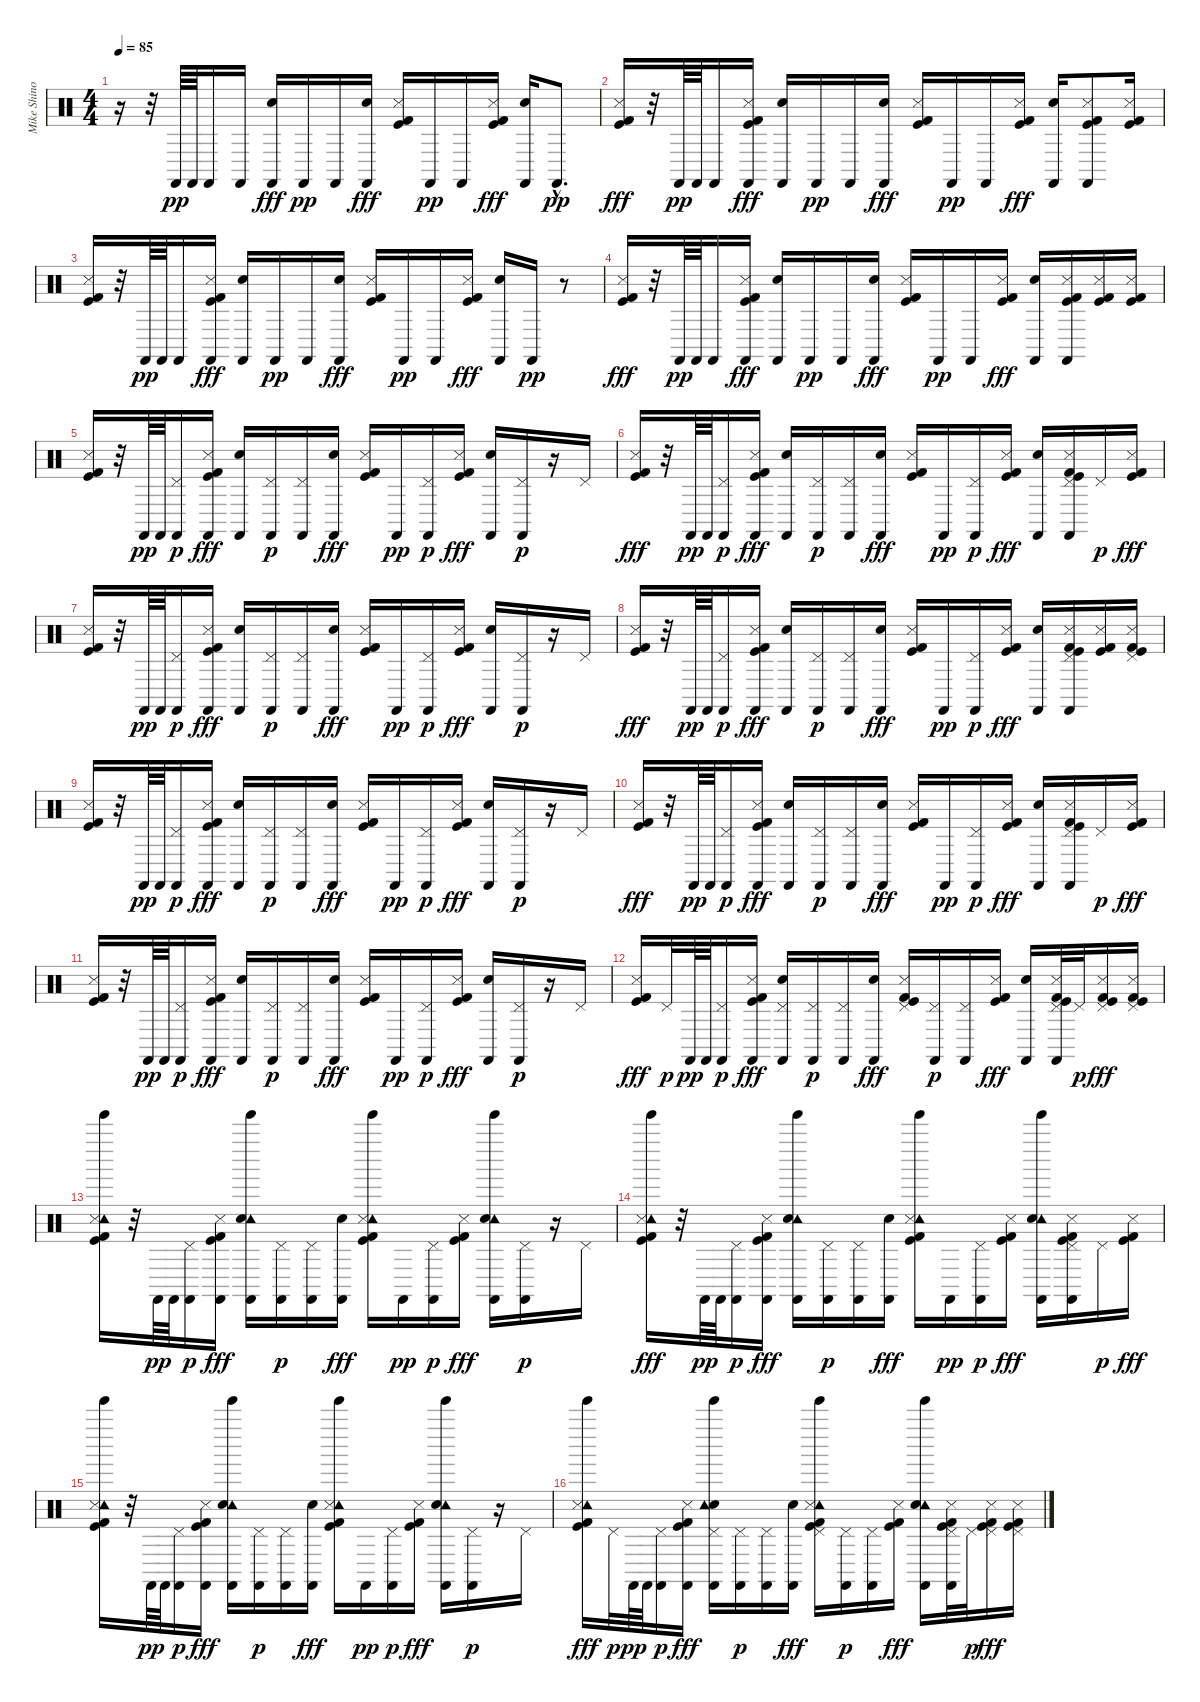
\track ("Mike Shinoda - Percussion" "Mike Shino") {instrument percussion}
\staff {score}
\articulation defaults
\ts (4 4)
\tempo 85
\clef neutral
\ks c
r.16{dy fff} r.32 "Castanets (hit)".64{dy pp} "Castanets (hit)".64 "Castanets (hit)".16 "Castanets (hit)".16 ("Castanets (hit)" "Hand Clap (hit)").16{dy fff} "Castanets (hit)".16{dy pp} "Castanets (hit)".16 ("Castanets (hit)" "Hand Clap (hit)").16{dy fff} ("Snare (side stick) 3" "Kick (hit)" "Kick (hit) 2").16 "Castanets (hit)".16{dy pp} "Castanets (hit)".16 ("Snare (side stick) 3" "Kick (hit)" "Kick (hit) 2").16{dy fff} ("Castanets (hit)" "Hand Clap (hit)").16 "Castanets (hit)"{hac}.8{d dy pp} |
("Snare (side stick) 3" "Kick (hit)" "Kick (hit) 2").16{dy fff} r.32 "Castanets (hit)".64{dy pp} "Castanets (hit)".64 "Castanets (hit)".16 ("Castanets (hit)" "Snare (side stick) 3" "Kick (hit)" "Kick (hit) 2").16{dy fff} ("Castanets (hit)" "Hand Clap (hit)").16 "Castanets (hit)".16{dy pp} "Castanets (hit)".16 ("Castanets (hit)" "Hand Clap (hit)").16{dy fff} ("Snare (side stick) 3" "Kick (hit)" "Kick (hit) 2").16 "Castanets (hit)".16{dy pp} "Castanets (hit)".16 ("Snare (side stick) 3" "Kick (hit)" "Kick (hit) 2").16{dy fff} ("Castanets (hit)" "Hand Clap (hit)").16 ("Castanets (hit)" "Snare (side stick) 3" "Kick (hit)" "Kick (hit) 2").8 ("Snare (side stick) 3" "Kick (hit)" "Kick (hit) 2").16 |
("Snare (side stick) 3" "Kick (hit)" "Kick (hit) 2").16 r.32 "Castanets (hit)".64{dy pp} "Castanets (hit)".64 "Castanets (hit)".16 ("Castanets (hit)" "Snare (side stick) 3" "Kick (hit)" "Kick (hit) 2").16{dy fff} ("Castanets (hit)" "Hand Clap (hit)").16 "Castanets (hit)".16{dy pp} "Castanets (hit)".16 ("Castanets (hit)" "Hand Clap (hit)").16{dy fff} ("Snare (side stick) 3" "Kick (hit)" "Kick (hit) 2").16 "Castanets (hit)".16{dy pp} "Castanets (hit)".16 ("Snare (side stick) 3" "Kick (hit)" "Kick (hit) 2").16{dy fff} ("Castanets (hit)" "Hand Clap (hit)").16 "Castanets (hit)".16{dy pp} r.8 |
("Snare (side stick) 3" "Kick (hit)" "Kick (hit) 2").16{dy fff} r.32 "Castanets (hit)".64{dy pp} "Castanets (hit)".64 "Castanets (hit)".16 ("Castanets (hit)" "Snare (side stick) 3" "Kick (hit)" "Kick (hit) 2").16{dy fff} ("Castanets (hit)" "Hand Clap (hit)").16 "Castanets (hit)".16{dy pp} "Castanets (hit)".16 ("Castanets (hit)" "Hand Clap (hit)").16{dy fff} ("Snare (side stick) 3" "Kick (hit)" "Kick (hit) 2").16 "Castanets (hit)".16{dy pp} "Castanets (hit)".16 ("Snare (side stick) 3" "Kick (hit)" "Kick (hit) 2").16{dy fff} ("Castanets (hit)" "Hand Clap (hit)").16 ("Castanets (hit)" "Snare (side stick) 3" "Kick (hit)" "Kick (hit) 2").16 ("Snare (side stick) 3" "Kick (hit)" "Kick (hit) 2").16 ("Snare (side stick) 3" "Kick (hit)" "Kick (hit) 2").16 |
("Snare (side stick) 3" "Kick (hit)" "Kick (hit) 2").16 r.32 "Castanets (hit)".64{dy pp} "Castanets (hit)".64 ("Castanets (hit)" "Pedal Hi-Hat (hit)").16{dy p} ("Castanets (hit)" "Snare (side stick) 3" "Kick (hit)" "Kick (hit) 2").16{dy fff} ("Castanets (hit)" "Hand Clap (hit)").16 ("Castanets (hit)" "Pedal Hi-Hat (hit)").16{dy p} ("Castanets (hit)" "Pedal Hi-Hat (hit)").16 ("Castanets (hit)" "Hand Clap (hit)").16{dy fff} ("Snare (side stick) 3" "Kick (hit)" "Kick (hit) 2").16 "Castanets (hit)".16{dy pp} ("Castanets (hit)" "Pedal Hi-Hat (hit)").16{dy p} ("Snare (side stick) 3" "Kick (hit)" "Kick (hit) 2").16{dy fff} ("Castanets (hit)" "Hand Clap (hit)").16 ("Castanets (hit)" "Pedal Hi-Hat (hit)").16{dy p} r.16 "Pedal Hi-Hat (hit)".16 |
("Snare (side stick) 3" "Kick (hit)" "Kick (hit) 2").16{dy fff} r.32 "Castanets (hit)".64{dy pp} "Castanets (hit)".64 ("Castanets (hit)" "Pedal Hi-Hat (hit)").16{dy p} ("Castanets (hit)" "Snare (side stick) 3" "Kick (hit)" "Kick (hit) 2").16{dy fff} ("Castanets (hit)" "Hand Clap (hit)").16 ("Castanets (hit)" "Pedal Hi-Hat (hit)").16{dy p} ("Castanets (hit)" "Pedal Hi-Hat (hit)").16 ("Castanets (hit)" "Hand Clap (hit)").16{dy fff} ("Snare (side stick) 3" "Kick (hit)" "Kick (hit) 2").16 "Castanets (hit)".16{dy pp} ("Castanets (hit)" "Pedal Hi-Hat (hit)").16{dy p} ("Snare (side stick) 3" "Kick (hit)" "Kick (hit) 2").16{dy fff} ("Castanets (hit)" "Hand Clap (hit)").16 ("Castanets (hit)" "Pedal Hi-Hat (hit)" "Snare (side stick) 3" "Kick (hit)" "Kick (hit) 2").16 "Pedal Hi-Hat (hit)".16{dy p} ("Snare (side stick) 3" "Kick (hit)" "Kick (hit) 2").16{dy fff} |
("Snare (side stick) 3" "Kick (hit)" "Kick (hit) 2").16 r.32 "Castanets (hit)".64{dy pp} "Castanets (hit)".64 ("Castanets (hit)" "Pedal Hi-Hat (hit)").16{dy p} ("Castanets (hit)" "Snare (side stick) 3" "Kick (hit)" "Kick (hit) 2").16{dy fff} ("Castanets (hit)" "Hand Clap (hit)").16 ("Castanets (hit)" "Pedal Hi-Hat (hit)").16{dy p} ("Castanets (hit)" "Pedal Hi-Hat (hit)").16 ("Castanets (hit)" "Hand Clap (hit)").16{dy fff} ("Snare (side stick) 3" "Kick (hit)" "Kick (hit) 2").16 "Castanets (hit)".16{dy pp} ("Castanets (hit)" "Pedal Hi-Hat (hit)").16{dy p} ("Snare (side stick) 3" "Kick (hit)" "Kick (hit) 2").16{dy fff} ("Castanets (hit)" "Hand Clap (hit)").16 ("Castanets (hit)" "Pedal Hi-Hat (hit)").16{dy p} r.16 "Pedal Hi-Hat (hit)".16 |
("Snare (side stick) 3" "Kick (hit)" "Kick (hit) 2").16{dy fff} r.32 "Castanets (hit)".64{dy pp} "Castanets (hit)".64 ("Castanets (hit)" "Pedal Hi-Hat (hit)").16{dy p} ("Castanets (hit)" "Snare (side stick) 3" "Kick (hit)" "Kick (hit) 2").16{dy fff} ("Castanets (hit)" "Hand Clap (hit)").16 ("Castanets (hit)" "Pedal Hi-Hat (hit)").16{dy p} ("Castanets (hit)" "Pedal Hi-Hat (hit)").16 ("Castanets (hit)" "Hand Clap (hit)").16{dy fff} ("Snare (side stick) 3" "Kick (hit)" "Kick (hit) 2").16 "Castanets (hit)".16{dy pp} ("Castanets (hit)" "Pedal Hi-Hat (hit)").16{dy p} ("Snare (side stick) 3" "Kick (hit)" "Kick (hit) 2").16{dy fff} ("Castanets (hit)" "Hand Clap (hit)").16 ("Castanets (hit)" "Pedal Hi-Hat (hit)" "Snare (side stick) 3" "Kick (hit)" "Kick (hit) 2").16 ("Snare (side stick) 3" "Kick (hit)" "Kick (hit) 2").16 ("Pedal Hi-Hat (hit)" "Snare (side stick) 3" "Kick (hit)" "Kick (hit) 2").16 |
("Snare (side stick) 3" "Kick (hit)" "Kick (hit) 2").16 r.32 "Castanets (hit)".64{dy pp} "Castanets (hit)".64 ("Castanets (hit)" "Pedal Hi-Hat (hit)").16{dy p} ("Castanets (hit)" "Snare (side stick) 3" "Kick (hit)" "Kick (hit) 2").16{dy fff} ("Castanets (hit)" "Hand Clap (hit)").16 ("Castanets (hit)" "Pedal Hi-Hat (hit)").16{dy p} ("Castanets (hit)" "Pedal Hi-Hat (hit)").16 ("Castanets (hit)" "Hand Clap (hit)").16{dy fff} ("Snare (side stick) 3" "Kick (hit)" "Kick (hit) 2").16 "Castanets (hit)".16{dy pp} ("Castanets (hit)" "Pedal Hi-Hat (hit)").16{dy p} ("Snare (side stick) 3" "Kick (hit)" "Kick (hit) 2").16{dy fff} ("Castanets (hit)" "Hand Clap (hit)").16 ("Castanets (hit)" "Pedal Hi-Hat (hit)").16{dy p} r.16 "Pedal Hi-Hat (hit)".16 |
("Snare (side stick) 3" "Kick (hit)" "Kick (hit) 2").16{dy fff} r.32 "Castanets (hit)".64{dy pp} "Castanets (hit)".64 ("Castanets (hit)" "Pedal Hi-Hat (hit)").16{dy p} ("Castanets (hit)" "Snare (side stick) 3" "Kick (hit)" "Kick (hit) 2").16{dy fff} ("Castanets (hit)" "Hand Clap (hit)").16 ("Castanets (hit)" "Pedal Hi-Hat (hit)").16{dy p} ("Castanets (hit)" "Pedal Hi-Hat (hit)").16 ("Castanets (hit)" "Hand Clap (hit)").16{dy fff} ("Snare (side stick) 3" "Kick (hit)" "Kick (hit) 2").16 "Castanets (hit)".16{dy pp} ("Castanets (hit)" "Pedal Hi-Hat (hit)").16{dy p} ("Snare (side stick) 3" "Kick (hit)" "Kick (hit) 2").16{dy fff} ("Castanets (hit)" "Hand Clap (hit)").16 ("Castanets (hit)" "Pedal Hi-Hat (hit)" "Snare (side stick) 3" "Kick (hit)" "Kick (hit) 2").16 "Pedal Hi-Hat (hit)".16{dy p} ("Snare (side stick) 3" "Kick (hit)" "Kick (hit) 2").16{dy fff} |
("Snare (side stick) 3" "Kick (hit)" "Kick (hit) 2").16 r.32 "Castanets (hit)".64{dy pp} "Castanets (hit)".64 ("Castanets (hit)" "Pedal Hi-Hat (hit)").16{dy p} ("Castanets (hit)" "Snare (side stick) 3" "Kick (hit)" "Kick (hit) 2").16{dy fff} ("Castanets (hit)" "Hand Clap (hit)").16 ("Castanets (hit)" "Pedal Hi-Hat (hit)").16{dy p} ("Castanets (hit)" "Pedal Hi-Hat (hit)").16 ("Castanets (hit)" "Hand Clap (hit)").16{dy fff} ("Snare (side stick) 3" "Kick (hit)" "Kick (hit) 2").16 "Castanets (hit)".16{dy pp} ("Castanets (hit)" "Pedal Hi-Hat (hit)").16{dy p} ("Snare (side stick) 3" "Kick (hit)" "Kick (hit) 2").16{dy fff} ("Castanets (hit)" "Hand Clap (hit)").16 ("Castanets (hit)" "Pedal Hi-Hat (hit)").16{dy p} r.16 "Pedal Hi-Hat (hit)".16 |
("Snare (side stick) 3" "Kick (hit)" "Kick (hit) 2").16{dy fff} "Pedal Hi-Hat (hit)".32{dy p} "Castanets (hit)".64{dy pp} "Castanets (hit)".64 ("Castanets (hit)" "Pedal Hi-Hat (hit)").16{dy p} ("Castanets (hit)" "Snare (side stick) 3" "Kick (hit)" "Kick (hit) 2").16{dy fff} ("Castanets (hit)" "Pedal Hi-Hat (hit)" "Hand Clap (hit)").16 ("Castanets (hit)" "Pedal Hi-Hat (hit)").16{dy p} ("Castanets (hit)" "Pedal Hi-Hat (hit)").16 ("Castanets (hit)" "Hand Clap (hit)").16{dy fff} ("Pedal Hi-Hat (hit)" "Snare (side stick) 3" "Kick (hit)" "Kick (hit) 2").16 ("Castanets (hit)" "Pedal Hi-Hat (hit)").16{dy p} ("Castanets (hit)" "Pedal Hi-Hat (hit)").16 ("Snare (side stick) 3" "Kick (hit)" "Kick (hit) 2").16{dy fff} ("Castanets (hit)" "Hand Clap (hit)").16 ("Castanets (hit)" "Pedal Hi-Hat (hit)" "Snare (side stick) 3" "Kick (hit)" "Kick (hit) 2").32 "Pedal Hi-Hat (hit)".32{dy p} ("Pedal Hi-Hat (hit)" "Snare (side stick) 3" "Kick (hit)" "Kick (hit) 2").16{dy fff} ("Pedal Hi-Hat (hit)" "Snare (side stick) 3" "Kick (hit)" "Kick (hit) 2").16 |
("Tambourine (hit)" "Tinkle Bell (hit)" "Snare (side stick) 3" "Kick (hit)" "Kick (hit) 2").16 r.32 "Castanets (hit)".64{dy pp} "Castanets (hit)".64 ("Castanets (hit)" "Pedal Hi-Hat (hit)").16{dy p} ("Castanets (hit)" "Snare (side stick) 3" "Kick (hit)" "Kick (hit) 2").16{dy fff} ("Castanets (hit)" "Tambourine (hit)" "Hand Clap (hit)" "Tinkle Bell (hit)").16 ("Castanets (hit)" "Pedal Hi-Hat (hit)").16{dy p} ("Castanets (hit)" "Pedal Hi-Hat (hit)").16 ("Castanets (hit)" "Hand Clap (hit)").16{dy fff} ("Tambourine (hit)" "Tinkle Bell (hit)" "Snare (side stick) 3" "Kick (hit)" "Kick (hit) 2").16 "Castanets (hit)".16{dy pp} ("Castanets (hit)" "Pedal Hi-Hat (hit)").16{dy p} ("Snare (side stick) 3" "Kick (hit)" "Kick (hit) 2").16{dy fff} ("Castanets (hit)" "Tambourine (hit)" "Hand Clap (hit)" "Tinkle Bell (hit)").16 ("Castanets (hit)" "Pedal Hi-Hat (hit)").16{dy p} r.16 "Pedal Hi-Hat (hit)".16 |
("Tambourine (hit)" "Tinkle Bell (hit)" "Snare (side stick) 3" "Kick (hit)" "Kick (hit) 2").16{dy fff} r.32 "Castanets (hit)".64{dy pp} "Castanets (hit)".64 ("Castanets (hit)" "Pedal Hi-Hat (hit)").16{dy p} ("Castanets (hit)" "Snare (side stick) 3" "Kick (hit)" "Kick (hit) 2").16{dy fff} ("Castanets (hit)" "Tambourine (hit)" "Hand Clap (hit)" "Tinkle Bell (hit)").16 ("Castanets (hit)" "Pedal Hi-Hat (hit)").16{dy p} ("Castanets (hit)" "Pedal Hi-Hat (hit)").16 ("Castanets (hit)" "Hand Clap (hit)").16{dy fff} ("Tambourine (hit)" "Tinkle Bell (hit)" "Snare (side stick) 3" "Kick (hit)" "Kick (hit) 2").16 "Castanets (hit)".16{dy pp} ("Castanets (hit)" "Pedal Hi-Hat (hit)").16{dy p} ("Snare (side stick) 3" "Kick (hit)" "Kick (hit) 2").16{dy fff} ("Castanets (hit)" "Tambourine (hit)" "Hand Clap (hit)" "Tinkle Bell (hit)").16 ("Castanets (hit)" "Pedal Hi-Hat (hit)" "Snare (side stick) 3" "Kick (hit)" "Kick (hit) 2").16 "Pedal Hi-Hat (hit)".16{dy p} ("Snare (side stick) 3" "Kick (hit)" "Kick (hit) 2").16{dy fff} |
("Tambourine (hit)" "Tinkle Bell (hit)" "Snare (side stick) 3" "Kick (hit)" "Kick (hit) 2").16 r.32 "Castanets (hit)".64{dy pp} "Castanets (hit)".64 ("Castanets (hit)" "Pedal Hi-Hat (hit)").16{dy p} ("Castanets (hit)" "Snare (side stick) 3" "Kick (hit)" "Kick (hit) 2").16{dy fff} ("Castanets (hit)" "Tambourine (hit)" "Hand Clap (hit)" "Tinkle Bell (hit)").16 ("Castanets (hit)" "Pedal Hi-Hat (hit)").16{dy p} ("Castanets (hit)" "Pedal Hi-Hat (hit)").16 ("Castanets (hit)" "Hand Clap (hit)").16{dy fff} ("Tambourine (hit)" "Tinkle Bell (hit)" "Snare (side stick) 3" "Kick (hit)" "Kick (hit) 2").16 "Castanets (hit)".16{dy pp} ("Castanets (hit)" "Pedal Hi-Hat (hit)").16{dy p} ("Snare (side stick) 3" "Kick (hit)" "Kick (hit) 2").16{dy fff} ("Castanets (hit)" "Tambourine (hit)" "Hand Clap (hit)" "Tinkle Bell (hit)").16 ("Castanets (hit)" "Pedal Hi-Hat (hit)").16{dy p} r.16 "Pedal Hi-Hat (hit)".16 |
("Tambourine (hit)" "Tinkle Bell (hit)" "Snare (side stick) 3" "Kick (hit)" "Kick (hit) 2").16{dy fff} "Pedal Hi-Hat (hit)".32{dy p} "Castanets (hit)".64{dy pp} "Castanets (hit)".64 ("Castanets (hit)" "Pedal Hi-Hat (hit)").16{dy p} ("Castanets (hit)" "Snare (side stick) 3" "Kick (hit)" "Kick (hit) 2").16{dy fff} ("Castanets (hit)" "Pedal Hi-Hat (hit)" "Hand Clap (hit)" "Tambourine (hit)" "Tinkle Bell (hit)").16 ("Castanets (hit)" "Pedal Hi-Hat (hit)").16{dy p} ("Castanets (hit)" "Pedal Hi-Hat (hit)").16 ("Castanets (hit)" "Hand Clap (hit)").16{dy fff} ("Tambourine (hit)" "Pedal Hi-Hat (hit)" "Tinkle Bell (hit)" "Snare (side stick) 3" "Kick (hit)" "Kick (hit) 2").16 ("Castanets (hit)" "Pedal Hi-Hat (hit)").16{dy p} ("Castanets (hit)" "Pedal Hi-Hat (hit)").16 ("Snare (side stick) 3" "Kick (hit)" "Kick (hit) 2").16{dy fff} ("Castanets (hit)" "Tambourine (hit)" "Hand Clap (hit)" "Tinkle Bell (hit)").16 ("Castanets (hit)" "Pedal Hi-Hat (hit)" "Snare (side stick) 3" "Kick (hit)" "Kick (hit) 2").32 "Pedal Hi-Hat (hit)".32{dy p} ("Pedal Hi-Hat (hit)" "Snare (side stick) 3" "Kick (hit)" "Kick (hit) 2").16{dy fff} ("Pedal Hi-Hat (hit)" "Snare (side stick) 3" "Kick (hit)" "Kick (hit) 2").16
